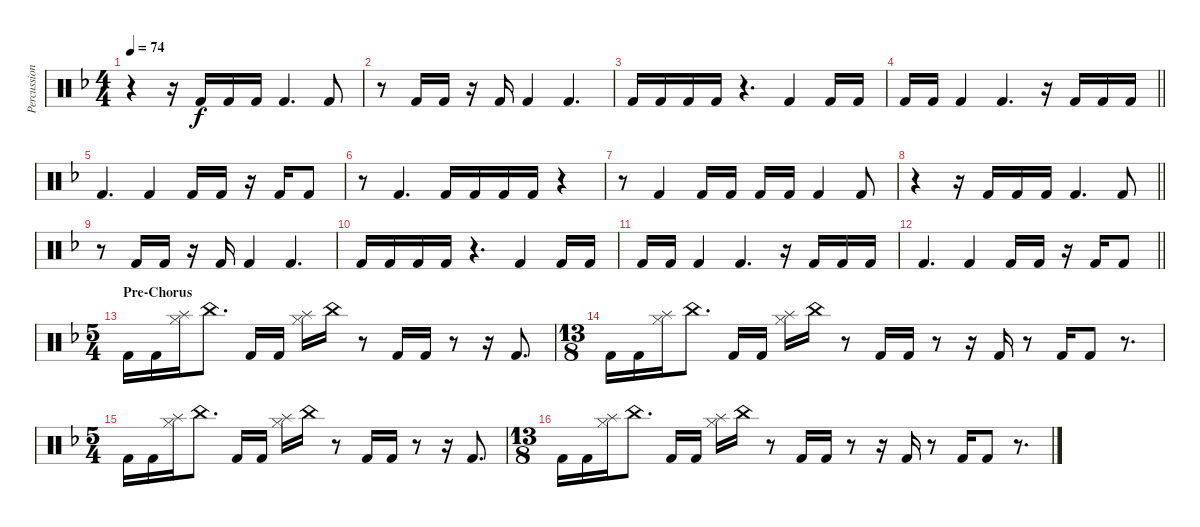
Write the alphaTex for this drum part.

\track ("Percussion" "Percussion") {instrument percussion}
\staff {score}
\articulation defaults
\ts (4 4)
\tempo 74
\clef neutral
\ks f
r.4{dy f} r.16 "Kick (hit) 2".16 "Kick (hit) 2".16 "Kick (hit) 2".16 "Kick (hit) 2".4{d} "Kick (hit) 2".8 |
r.8 "Kick (hit) 2".16 "Kick (hit) 2".16 r.16 "Kick (hit) 2".16 "Kick (hit) 2".4 "Kick (hit) 2".4{d} |
"Kick (hit) 2".16 "Kick (hit) 2".16 "Kick (hit) 2".16 "Kick (hit) 2".16 r.4{d} "Kick (hit) 2".4 "Kick (hit) 2".16 "Kick (hit) 2".16 |
\barLineRight lightlight "Kick (hit) 2".16 "Kick (hit) 2".16 "Kick (hit) 2".4 "Kick (hit) 2".4{d}
r.16 "Kick (hit) 2".16 "Kick (hit) 2".16 "Kick (hit) 2".16 |
"Kick (hit) 2".4{d} "Kick (hit) 2".4 "Kick (hit) 2".16 "Kick (hit) 2".16 r.16 "Kick (hit) 2".16 "Kick (hit) 2".8 |
r.8 "Kick (hit) 2".4{d} "Kick (hit) 2".16 "Kick (hit) 2".16 "Kick (hit) 2".16 "Kick (hit) 2".16 r.4 |
r.8 "Kick (hit) 2".4 "Kick (hit) 2".16 "Kick (hit) 2".16 "Kick (hit) 2".16 "Kick (hit) 2".16 "Kick (hit) 2".4 "Kick (hit) 2".8 |
\barLineRight lightlight
r.4 r.16 "Kick (hit) 2".16 "Kick (hit) 2".16 "Kick (hit) 2".16 "Kick (hit) 2".4{d} "Kick (hit) 2".8 |
r.8 "Kick (hit) 2".16 "Kick (hit) 2".16 r.16 "Kick (hit) 2".16 "Kick (hit) 2".4 "Kick (hit) 2".4{d} |
"Kick (hit) 2".16 "Kick (hit) 2".16 "Kick (hit) 2".16 "Kick (hit) 2".16 r.4{d} "Kick (hit) 2".4 "Kick (hit) 2".16 "Kick (hit) 2".16 |
"Kick (hit) 2".16 "Kick (hit) 2".16 "Kick (hit) 2".4 "Kick (hit) 2".4{d} r.16 "Kick (hit) 2".16 "Kick (hit) 2".16 "Kick (hit) 2".16 |
\barLineRight lightlight "Kick (hit) 2".4{d} "Kick (hit) 2".4 "Kick (hit) 2".16 "Kick (hit) 2".16
r.16 "Kick (hit) 2".16 "Kick (hit) 2".8 |
\ts (5 4)
\section ("" "Pre-Chorus")
"Kick (hit) 2".16 "Kick (hit) 2".16 ("Hi-Hat (closed)" "Splash (hit)").16 "China (hit)".8{d} "Kick (hit) 2".16 "Kick (hit) 2".16 ("Hi-Hat (closed)" "Splash (hit)").16 "China (hit)".16 r.8 "Kick (hit) 2".16 "Kick (hit) 2".16 r.8 r.16 "Kick (hit) 2".8{d} |
\ts (13 8)
"Kick (hit) 2".16 "Kick (hit) 2".16 ("Hi-Hat (closed)" "Splash (hit)").16 "China (hit)".8{d} "Kick (hit) 2".16 "Kick (hit) 2".16 ("Hi-Hat (closed)" "Splash (hit)").16 "China (hit)".16 r.8 "Kick (hit) 2".16 "Kick (hit) 2".16 r.8 r.16 "Kick (hit) 2".16 r.8 "Kick (hit) 2".16 "Kick (hit) 2".8 r.8{d} |
\ts (5 4)
"Kick (hit) 2".16 "Kick (hit) 2".16 ("Hi-Hat (closed)" "Splash (hit)").16 "China (hit)".8{d} "Kick (hit) 2".16 "Kick (hit) 2".16 ("Hi-Hat (closed)" "Splash (hit)").16 "China (hit)".16 r.8 "Kick (hit) 2".16 "Kick (hit) 2".16 r.8 r.16 "Kick (hit) 2".8{d} |
\ts (13 8)
"Kick (hit) 2".16 "Kick (hit) 2".16 ("Splash (hit)" "Hi-Hat (closed)").16 "China (hit)".8{d} "Kick (hit) 2".16 "Kick (hit) 2".16 ("Splash (hit)" "Hi-Hat (closed)").16 "China (hit)".16 r.8 "Kick (hit) 2".16 "Kick (hit) 2".16 r.8 r.16 "Kick (hit) 2".16 r.8 "Kick (hit) 2".16 "Kick (hit) 2".8 r.8{d}
